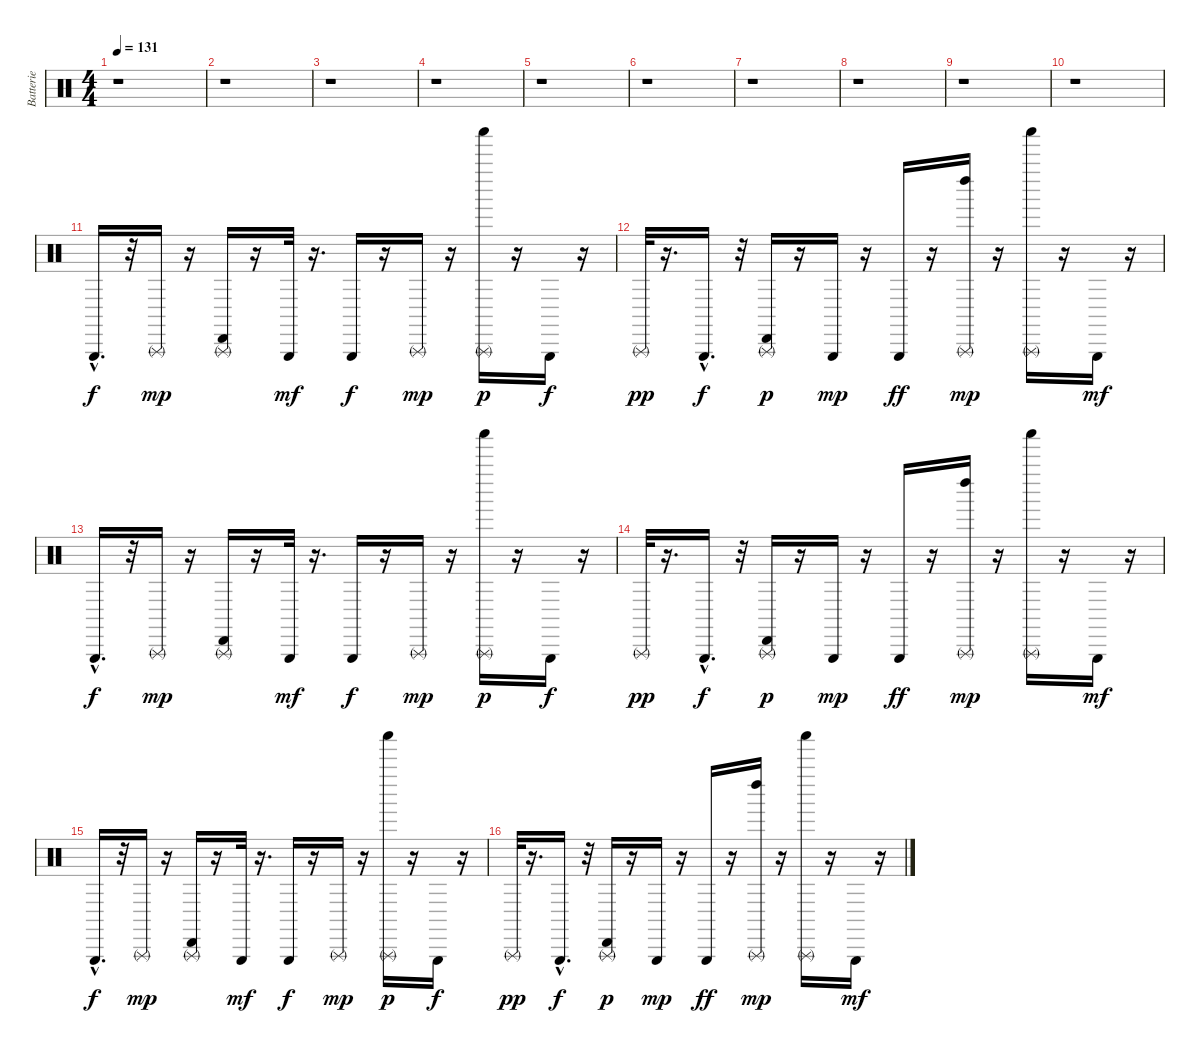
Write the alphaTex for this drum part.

\track ("Batterie" "Batterie") {instrument percussion}
\staff {score}
\articulation defaults
\ts (4 4)
\tempo 131
\clef neutral
\ks c
r.1{dy f} |
r.1 |
r.1 |
r.1 |
r.1 |
r.1 |
r.1 |
r.1 |
r.1 |
r.1 |
"Triangle (hit)"{hac}.16{d} r.32 "Triangle (rnute)".16{dy mp} r.16 ("Cabasa (hit)" "Triangle (rnute)").16 r.16 "Triangle (hit)".32{dy mf} r.16{d} "Triangle (hit)".16{dy f} r.16 "Triangle (rnute)".16{dy mp} r.16 ("Shaker (hit)" "Triangle (rnute)").16{dy p} r.16 "Triangle (hit)".16{dy f} r.16 |
"Triangle (rnute)".32{dy pp} r.16{d} "Triangle (hit)"{hac}.16{d dy f} r.32 ("Cabasa (hit)" "Triangle (rnute)").16{dy p} r.16 "Triangle (hit)".16{dy mp} r.16 "Triangle (hit)".16{dy ff} r.16 ("Left Maraca (hit)" "Triangle (rnute)").16{dy mp} r.16 ("Shaker (hit)" "Triangle (rnute)").16 r.16 "Triangle (hit)".16{dy mf} r.16 |
"Triangle (hit)"{hac}.16{d dy f} r.32 "Triangle (rnute)".16{dy mp} r.16 ("Cabasa (hit)" "Triangle (rnute)").16 r.16 "Triangle (hit)".32{dy mf} r.16{d} "Triangle (hit)".16{dy f} r.16 "Triangle (rnute)".16{dy mp} r.16 ("Shaker (hit)" "Triangle (rnute)").16{dy p} r.16 "Triangle (hit)".16{dy f} r.16 |
"Triangle (rnute)".32{dy pp} r.16{d} "Triangle (hit)"{hac}.16{d dy f} r.32 ("Cabasa (hit)" "Triangle (rnute)").16{dy p} r.16 "Triangle (hit)".16{dy mp} r.16 "Triangle (hit)".16{dy ff} r.16 ("Left Maraca (hit)" "Triangle (rnute)").16{dy mp} r.16 ("Shaker (hit)" "Triangle (rnute)").16 r.16 "Triangle (hit)".16{dy mf} r.16 |
"Triangle (hit)"{hac}.16{d dy f} r.32 "Triangle (rnute)".16{dy mp} r.16 ("Cabasa (hit)" "Triangle (rnute)").16 r.16 "Triangle (hit)".32{dy mf} r.16{d} "Triangle (hit)".16{dy f} r.16 "Triangle (rnute)".16{dy mp} r.16 ("Shaker (hit)" "Triangle (rnute)").16{dy p} r.16 "Triangle (hit)".16{dy f} r.16 |
"Triangle (rnute)".32{dy pp} r.16{d} "Triangle (hit)"{hac}.16{d dy f} r.32 ("Cabasa (hit)" "Triangle (rnute)").16{dy p} r.16 "Triangle (hit)".16{dy mp} r.16 "Triangle (hit)".16{dy ff} r.16 ("Left Maraca (hit)" "Triangle (rnute)").16{dy mp} r.16 ("Shaker (hit)" "Triangle (rnute)").16 r.16 "Triangle (hit)".16{dy mf} r.16
